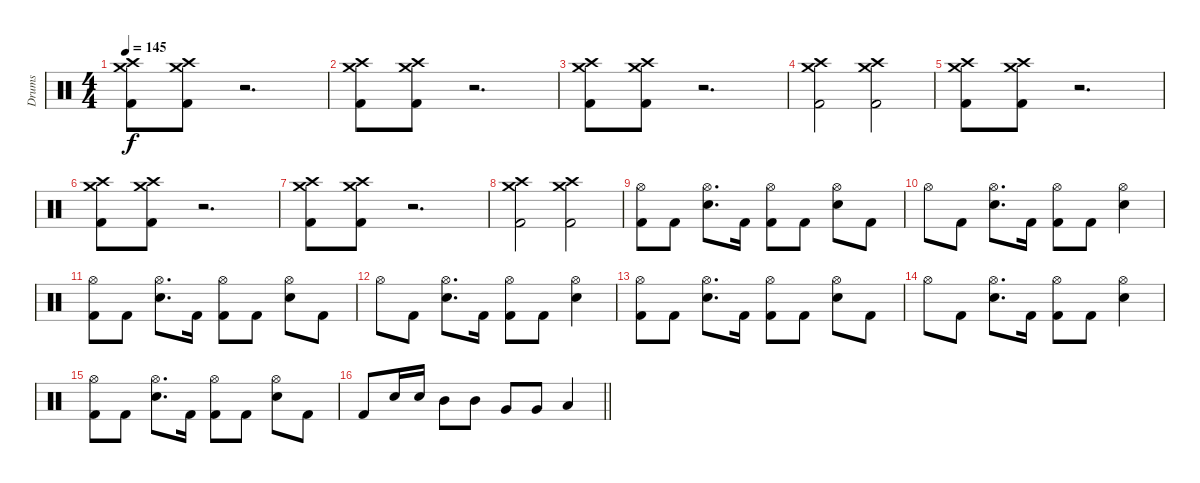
\track ("Drums" "Drums") {instrument percussion}
\staff {score}
\articulation defaults
\ts (4 4)
\tempo 145
\clef neutral
\ks c
("Crash high (hit)" "Crash medium (hit)" "Kick (hit) 2").8{dy f} ("Crash high (hit)" "Crash medium (hit)" "Kick (hit) 2").8 r.2{d} |
("Crash high (hit)" "Crash medium (hit)" "Kick (hit) 2").8 ("Crash high (hit)" "Crash medium (hit)" "Kick (hit) 2").8 r.2{d} |
("Crash high (hit)" "Crash medium (hit)" "Kick (hit) 2").8 ("Crash high (hit)" "Crash medium (hit)" "Kick (hit) 2").8 r.2{d} |
("Crash high (hit)" "Crash medium (hit)" "Kick (hit) 2").2 ("Crash high (hit)" "Crash medium (hit)" "Kick (hit) 2").2 |
("Crash high (hit)" "Crash medium (hit)" "Kick (hit) 2").8 ("Crash high (hit)" "Crash medium (hit)" "Kick (hit) 2").8 r.2{d} |
("Crash high (hit)" "Crash medium (hit)" "Kick (hit) 2").8 ("Crash high (hit)" "Crash medium (hit)" "Kick (hit) 2").8 r.2{d} |
("Crash high (hit)" "Crash medium (hit)" "Kick (hit) 2").8 ("Crash high (hit)" "Crash medium (hit)" "Kick (hit) 2").8 r.2{d} |
("Crash high (hit)" "Crash medium (hit)" "Kick (hit) 2").2 ("Crash high (hit)" "Crash medium (hit)" "Kick (hit) 2").2 |
("Hi-Hat (open)" "Kick (hit) 2").8 "Kick (hit) 2".8 ("Hi-Hat (open)" "Electric Snare (hit)").8{d} "Kick (hit) 2".16 ("Hi-Hat (open)" "Kick (hit) 2").8 "Kick (hit) 2".8 ("Hi-Hat (open)" "Electric Snare (hit)").8 "Kick (hit) 2".8 |
"Hi-Hat (open)".8 "Kick (hit) 2".8 ("Hi-Hat (open)" "Electric Snare (hit)").8{d} "Kick (hit) 2".16 ("Hi-Hat (open)" "Kick (hit) 2").8 "Kick (hit) 2".8 ("Hi-Hat (open)" "Electric Snare (hit)").4 |
("Hi-Hat (open)" "Kick (hit) 2").8 "Kick (hit) 2".8 ("Hi-Hat (open)" "Electric Snare (hit)").8{d} "Kick (hit) 2".16 ("Hi-Hat (open)" "Kick (hit) 2").8 "Kick (hit) 2".8 ("Hi-Hat (open)" "Electric Snare (hit)").8 "Kick (hit) 2".8 |
"Hi-Hat (open)".8 "Kick (hit) 2".8 ("Hi-Hat (open)" "Electric Snare (hit)").8{d} "Kick (hit) 2".16 ("Hi-Hat (open)" "Kick (hit) 2").8 "Kick (hit) 2".8 ("Hi-Hat (open)" "Electric Snare (hit)").4 |
("Hi-Hat (open)" "Kick (hit) 2").8 "Kick (hit) 2".8 ("Hi-Hat (open)" "Electric Snare (hit)").8{d} "Kick (hit) 2".16 ("Hi-Hat (open)" "Kick (hit) 2").8 "Kick (hit) 2".8 ("Hi-Hat (open)" "Electric Snare (hit)").8 "Kick (hit) 2".8 |
"Hi-Hat (open)".8 "Kick (hit) 2".8 ("Hi-Hat (open)" "Electric Snare (hit)").8{d} "Kick (hit) 2".16 ("Hi-Hat (open)" "Kick (hit) 2").8 "Kick (hit) 2".8 ("Hi-Hat (open)" "Electric Snare (hit)").4 |
("Hi-Hat (open)" "Kick (hit) 2").8 "Kick (hit) 2".8 ("Hi-Hat (open)" "Electric Snare (hit)").8{d} "Kick (hit) 2".16 ("Hi-Hat (open)" "Kick (hit) 2").8 "Kick (hit) 2".8 ("Hi-Hat (open)" "Electric Snare (hit)").8 "Kick (hit) 2".8 |
\barLineRight lightlight "Kick (hit) 2".8 "Electric Snare (hit)".16 "Electric Snare (hit)".16 "Mid Tom (hit)".8 "Mid Tom (hit)".8 "Very Low Tom (hit)".8 "Very Low Tom (hit)".8 "Low Tom (hit)".4
